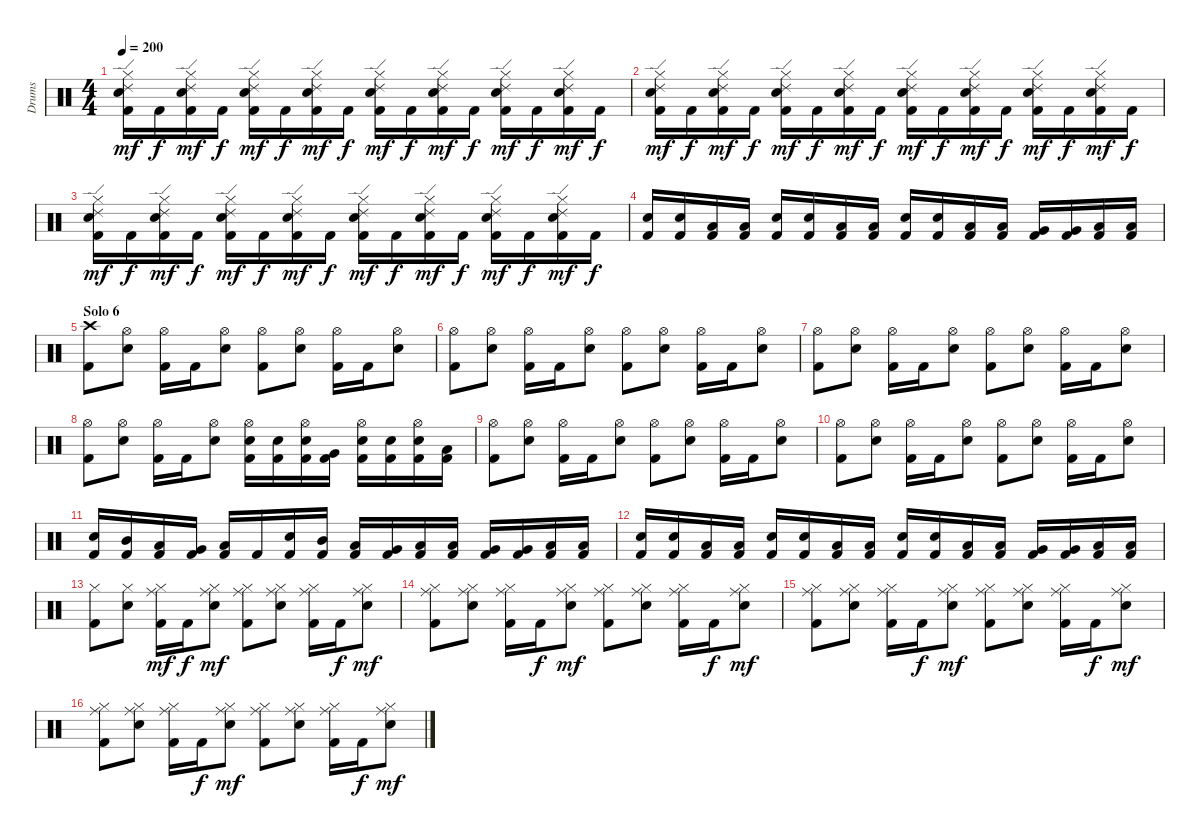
\track ("Drums" "Drums") {instrument percussion}
\staff {score}
\articulation defaults
\ts (4 4)
\tempo 200
\clef neutral
\ks c
("Hi-Hat (closed)" "Ride (edge) 2" "Snare (hit) 2" "Kick (hit) 2").16{dy mf} "Kick (hit) 2".16{dy f} ("Hi-Hat (closed)" "Ride (edge) 2" "Snare (hit) 2" "Kick (hit) 2").16{dy mf} "Kick (hit) 2".16{dy f} ("Hi-Hat (closed)" "Ride (edge) 2" "Snare (hit) 2" "Kick (hit) 2").16{dy mf} "Kick (hit) 2".16{dy f} ("Hi-Hat (closed)" "Ride (edge) 2" "Snare (hit) 2" "Kick (hit) 2").16{dy mf} "Kick (hit) 2".16{dy f} ("Hi-Hat (closed)" "Ride (edge) 2" "Snare (hit) 2" "Kick (hit) 2").16{dy mf} "Kick (hit) 2".16{dy f} ("Hi-Hat (closed)" "Ride (edge) 2" "Snare (hit) 2" "Kick (hit) 2").16{dy mf} "Kick (hit) 2".16{dy f} ("Hi-Hat (closed)" "Ride (edge) 2" "Snare (hit) 2" "Kick (hit) 2").16{dy mf} "Kick (hit) 2".16{dy f} ("Hi-Hat (closed)" "Ride (edge) 2" "Snare (hit) 2" "Kick (hit) 2").16{dy mf} "Kick (hit) 2".16{dy f} |
("Hi-Hat (closed)" "Ride (edge) 2" "Snare (hit) 2" "Kick (hit) 2").16{dy mf} "Kick (hit) 2".16{dy f} ("Hi-Hat (closed)" "Ride (edge) 2" "Snare (hit) 2" "Kick (hit) 2").16{dy mf} "Kick (hit) 2".16{dy f} ("Hi-Hat (closed)" "Ride (edge) 2" "Snare (hit) 2" "Kick (hit) 2").16{dy mf} "Kick (hit) 2".16{dy f} ("Hi-Hat (closed)" "Ride (edge) 2" "Snare (hit) 2" "Kick (hit) 2").16{dy mf} "Kick (hit) 2".16{dy f} ("Hi-Hat (closed)" "Ride (edge) 2" "Snare (hit) 2" "Kick (hit) 2").16{dy mf} "Kick (hit) 2".16{dy f} ("Hi-Hat (closed)" "Ride (edge) 2" "Snare (hit) 2" "Kick (hit) 2").16{dy mf} "Kick (hit) 2".16{dy f} ("Hi-Hat (closed)" "Ride (edge) 2" "Snare (hit) 2" "Kick (hit) 2").16{dy mf} "Kick (hit) 2".16{dy f} ("Hi-Hat (closed)" "Ride (edge) 2" "Snare (hit) 2" "Kick (hit) 2").16{dy mf} "Kick (hit) 2".16{dy f} |
("Hi-Hat (closed)" "Ride (edge) 2" "Snare (hit) 2" "Kick (hit) 2").16{dy mf} "Kick (hit) 2".16{dy f} ("Hi-Hat (closed)" "Ride (edge) 2" "Snare (hit) 2" "Kick (hit) 2").16{dy mf} "Kick (hit) 2".16{dy f} ("Hi-Hat (closed)" "Ride (edge) 2" "Snare (hit) 2" "Kick (hit) 2").16{dy mf} "Kick (hit) 2".16{dy f} ("Hi-Hat (closed)" "Ride (edge) 2" "Snare (hit) 2" "Kick (hit) 2").16{dy mf} "Kick (hit) 2".16{dy f} ("Hi-Hat (closed)" "Ride (edge) 2" "Snare (hit) 2" "Kick (hit) 2").16{dy mf} "Kick (hit) 2".16{dy f} ("Hi-Hat (closed)" "Ride (edge) 2" "Snare (hit) 2" "Kick (hit) 2").16{dy mf} "Kick (hit) 2".16{dy f} ("Hi-Hat (closed)" "Ride (edge) 2" "Snare (hit) 2" "Kick (hit) 2").16{dy mf} "Kick (hit) 2".16{dy f} ("Hi-Hat (closed)" "Ride (edge) 2" "Snare (hit) 2" "Kick (hit) 2").16{dy mf} "Kick (hit) 2".16{dy f} |
("Snare (hit) 2" "Kick (hit) 2").16 ("Snare (hit) 2" "Kick (hit) 2").16 ("Low Floor Tom (hit)" "Kick (hit) 2").16 ("Low Floor Tom (hit)" "Kick (hit) 2").16 ("Snare (hit) 2" "Kick (hit) 2").16 ("Snare (hit) 2" "Kick (hit) 2").16 ("Low Floor Tom (hit)" "Kick (hit) 2").16 ("Low Floor Tom (hit)" "Kick (hit) 2").16 ("Snare (hit) 2" "Kick (hit) 2").16 ("Snare (hit) 2" "Kick (hit) 2").16 ("Low Tom (hit)" "Kick (hit) 2").16 ("Low Tom (hit)" "Kick (hit) 2").16 ("Very Low Tom (hit)" "Kick (hit) 2").16 ("Very Low Tom (hit)" "Kick (hit) 2").16 ("Low Floor Tom (hit)" "Kick (hit) 2").16 ("Low Floor Tom (hit)" "Kick (hit) 2").16 |
\section ("" "Solo 6")
("Crash high (hit)" "Kick (hit) 2").8 ("Hi-Hat (open)" "Snare (hit) 2").8 ("Hi-Hat (open)" "Kick (hit) 2").16 "Kick (hit) 2".16 ("Hi-Hat (open)" "Snare (hit) 2").8 ("Hi-Hat (open)" "Kick (hit) 2").8 ("Hi-Hat (open)" "Snare (hit) 2").8 ("Hi-Hat (open)" "Kick (hit) 2").16 "Kick (hit) 2".16 ("Hi-Hat (open)" "Snare (hit) 2").8 |
("Hi-Hat (open)" "Kick (hit) 2").8 ("Hi-Hat (open)" "Snare (hit) 2").8 ("Hi-Hat (open)" "Kick (hit) 2").16 "Kick (hit) 2".16 ("Hi-Hat (open)" "Snare (hit) 2").8 ("Hi-Hat (open)" "Kick (hit) 2").8 ("Hi-Hat (open)" "Snare (hit) 2").8 ("Hi-Hat (open)" "Kick (hit) 2").16 "Kick (hit) 2".16 ("Hi-Hat (open)" "Snare (hit) 2").8 |
("Hi-Hat (open)" "Kick (hit) 2").8 ("Hi-Hat (open)" "Snare (hit) 2").8 ("Hi-Hat (open)" "Kick (hit) 2").16 "Kick (hit) 2".16 ("Hi-Hat (open)" "Snare (hit) 2").8 ("Hi-Hat (open)" "Kick (hit) 2").8 ("Hi-Hat (open)" "Snare (hit) 2").8 ("Hi-Hat (open)" "Kick (hit) 2").16 "Kick (hit) 2".16 ("Hi-Hat (open)" "Snare (hit) 2").8 |
("Hi-Hat (open)" "Kick (hit) 2").8 ("Hi-Hat (open)" "Snare (hit) 2").8 ("Hi-Hat (open)" "Kick (hit) 2").16 "Kick (hit) 2".16 ("Hi-Hat (open)" "Snare (hit) 2").8 ("Hi-Hat (open)" "Snare (hit) 2" "Kick (hit) 2").16 ("Snare (hit) 2" "Kick (hit) 2").16 ("Hi-Hat (open)" "Snare (hit) 2" "Kick (hit) 2").16 ("Very Low Tom (hit)" "Kick (hit) 2").16 ("Hi-Hat (open)" "Snare (hit) 2" "Kick (hit) 2").16 ("Snare (hit) 2" "Kick (hit) 2").16 ("Hi-Hat (open)" "Snare (hit) 2" "Kick (hit) 2").16 ("Low Tom (hit)" "Kick (hit) 2").16 |
("Hi-Hat (open)" "Kick (hit) 2").8 ("Hi-Hat (open)" "Snare (hit) 2").8 ("Hi-Hat (open)" "Kick (hit) 2").16 "Kick (hit) 2".16 ("Hi-Hat (open)" "Snare (hit) 2").8 ("Hi-Hat (open)" "Kick (hit) 2").8 ("Hi-Hat (open)" "Snare (hit) 2").8 ("Hi-Hat (open)" "Kick (hit) 2").16 "Kick (hit) 2".16 ("Hi-Hat (open)" "Snare (hit) 2").8 |
("Hi-Hat (open)" "Kick (hit) 2").8 ("Hi-Hat (open)" "Snare (hit) 2").8 ("Hi-Hat (open)" "Kick (hit) 2").16 "Kick (hit) 2".16 ("Hi-Hat (open)" "Snare (hit) 2").8 ("Hi-Hat (open)" "Kick (hit) 2").8 ("Hi-Hat (open)" "Snare (hit) 2").8 ("Hi-Hat (open)" "Kick (hit) 2").16 "Kick (hit) 2".16 ("Hi-Hat (open)" "Snare (hit) 2").8 |
("Snare (hit) 2" "Kick (hit) 2").16 ("Mid Tom (hit)" "Kick (hit) 2").16 ("Low Tom (hit)" "Kick (hit) 2").16 ("Very Low Tom (hit)" "Kick (hit) 2").16 ("Low Floor Tom (hit)" "Kick (hit) 2").16 "Kick (hit) 2".16 ("Snare (hit) 2" "Kick (hit) 2").16 ("Mid Tom (hit)" "Kick (hit) 2").16 ("Low Tom (hit)" "Kick (hit) 2").16 ("Very Low Tom (hit)" "Kick (hit) 2").16 ("Low Tom (hit)" "Kick (hit) 2").16 ("Low Tom (hit)" "Kick (hit) 2").16 ("Very Low Tom (hit)" "Kick (hit) 2").16 ("Very Low Tom (hit)" "Kick (hit) 2").16 ("Low Floor Tom (hit)" "Kick (hit) 2").16 ("Low Floor Tom (hit)" "Kick (hit) 2").16 |
("Snare (hit) 2" "Kick (hit) 2").16 ("Snare (hit) 2" "Kick (hit) 2").16 ("Low Floor Tom (hit)" "Kick (hit) 2").16 ("Low Floor Tom (hit)" "Kick (hit) 2").16 ("Snare (hit) 2" "Kick (hit) 2").16 ("Snare (hit) 2" "Kick (hit) 2").16 ("Low Floor Tom (hit)" "Kick (hit) 2").16 ("Low Floor Tom (hit)" "Kick (hit) 2").16 ("Snare (hit) 2" "Kick (hit) 2").16 ("Snare (hit) 2" "Kick (hit) 2").16 ("Low Tom (hit)" "Kick (hit) 2").16 ("Low Tom (hit)" "Kick (hit) 2").16 ("Very Low Tom (hit)" "Kick (hit) 2").16 ("Very Low Tom (hit)" "Kick (hit) 2").16 ("Low Floor Tom (hit)" "Kick (hit) 2").16 ("Low Floor Tom (hit)" "Kick (hit) 2").16 |
("Hi-Hat (closed)" "Kick (hit) 2").8 ("Hi-Hat (closed)" "Snare (hit) 2").8 ("Hi-Hat (closed)" "Ride (middle)" "Kick (hit) 2").16{dy mf} "Kick (hit) 2".16{dy f} ("Hi-Hat (closed)" "Ride (middle)" "Snare (hit) 2").8{dy mf} ("Hi-Hat (closed)" "Ride (middle)" "Kick (hit) 2").8 ("Hi-Hat (closed)" "Ride (middle)" "Snare (hit) 2").8 ("Hi-Hat (closed)" "Ride (middle)" "Kick (hit) 2").16 "Kick (hit) 2".16{dy f} ("Hi-Hat (closed)" "Ride (middle)" "Snare (hit) 2").8{dy mf} |
("Hi-Hat (closed)" "Ride (middle)" "Kick (hit) 2").8 ("Hi-Hat (closed)" "Ride (middle)" "Snare (hit) 2").8 ("Hi-Hat (closed)" "Ride (middle)" "Kick (hit) 2").16 "Kick (hit) 2".16{dy f} ("Hi-Hat (closed)" "Ride (middle)" "Snare (hit) 2").8{dy mf} ("Hi-Hat (closed)" "Ride (middle)" "Kick (hit) 2").8 ("Hi-Hat (closed)" "Ride (middle)" "Snare (hit) 2").8 ("Hi-Hat (closed)" "Ride (middle)" "Kick (hit) 2").16 "Kick (hit) 2".16{dy f} ("Hi-Hat (closed)" "Ride (middle)" "Snare (hit) 2").8{dy mf} |
("Hi-Hat (closed)" "Ride (middle)" "Kick (hit) 2").8 ("Hi-Hat (closed)" "Ride (middle)" "Snare (hit) 2").8 ("Hi-Hat (closed)" "Ride (middle)" "Kick (hit) 2").16 "Kick (hit) 2".16{dy f} ("Hi-Hat (closed)" "Ride (middle)" "Snare (hit) 2").8{dy mf} ("Hi-Hat (closed)" "Ride (middle)" "Kick (hit) 2").8 ("Hi-Hat (closed)" "Ride (middle)" "Snare (hit) 2").8 ("Hi-Hat (closed)" "Ride (middle)" "Kick (hit) 2").16 "Kick (hit) 2".16{dy f} ("Hi-Hat (closed)" "Ride (middle)" "Snare (hit) 2").8{dy mf} |
("Hi-Hat (closed)" "Ride (middle)" "Kick (hit) 2").8 ("Hi-Hat (closed)" "Ride (middle)" "Snare (hit) 2").8 ("Hi-Hat (closed)" "Ride (middle)" "Kick (hit) 2").16 "Kick (hit) 2".16{dy f} ("Hi-Hat (closed)" "Ride (middle)" "Snare (hit) 2").8{dy mf} ("Hi-Hat (closed)" "Ride (middle)" "Kick (hit) 2").8 ("Hi-Hat (closed)" "Ride (middle)" "Snare (hit) 2").8 ("Hi-Hat (closed)" "Ride (middle)" "Kick (hit) 2").16 "Kick (hit) 2".16{dy f} ("Hi-Hat (closed)" "Ride (middle)" "Snare (hit) 2").8{dy mf}
